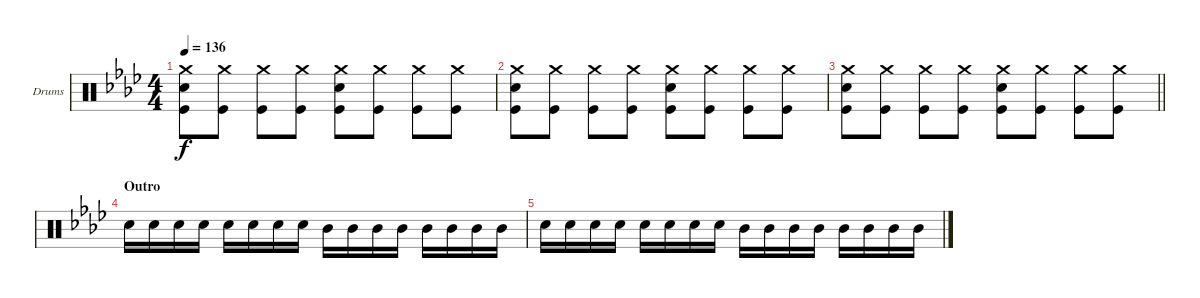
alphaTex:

\bracketExtendMode groupsimilarinstruments
\firstSystemTrackNameOrientation horizontal
\otherSystemsTrackNameOrientation horizontal
\track ("Fabrizio" "Drums") {instrument percussion}
\staff {score}
\articulation defaults
\ts (4 4)
\tempo 136
\clef neutral
\ks ab
("Crash medium (hit)" "Snare (hit) 2" "Kick (hit)").8{dy f} ("Crash medium (hit)" "Kick (hit)").8 ("Crash medium (hit)" "Kick (hit)").8 ("Crash medium (hit)" "Kick (hit)").8 ("Crash medium (hit)" "Snare (hit) 2" "Kick (hit)").8 ("Crash medium (hit)" "Kick (hit)").8 ("Crash medium (hit)" "Kick (hit)").8 ("Crash medium (hit)" "Kick (hit)").8 |
("Crash medium (hit)" "Snare (hit) 2" "Kick (hit)").8 ("Crash medium (hit)" "Kick (hit)").8 ("Crash medium (hit)" "Kick (hit)").8 ("Crash medium (hit)" "Kick (hit)").8 ("Crash medium (hit)" "Snare (hit) 2" "Kick (hit)").8 ("Crash medium (hit)" "Kick (hit)").8 ("Crash medium (hit)" "Kick (hit)").8 ("Crash medium (hit)" "Kick (hit)").8 |
\barLineRight lightlight
("Crash medium (hit)" "Snare (hit) 2" "Kick (hit)").8 ("Crash medium (hit)" "Kick (hit)").8 ("Crash medium (hit)" "Kick (hit)").8 ("Crash medium (hit)" "Kick (hit)").8 ("Crash medium (hit)" "Snare (hit) 2" "Kick (hit)").8 ("Crash medium (hit)" "Kick (hit)").8 ("Crash medium (hit)" "Kick (hit)").8 ("Crash medium (hit)" "Kick (hit)").8 |
\section ("" "Outro")
"Snare (hit) 2".16 "Snare (hit) 2".16 "Snare (hit) 2".16 "Snare (hit) 2".16 "Snare (hit) 2".16 "Snare (hit) 2".16 "Snare (hit) 2".16 "Snare (hit) 2".16 "Mid Tom (hit)".16 "Mid Tom (hit)".16 "Mid Tom (hit)".16 "Mid Tom (hit)".16 "Mid Tom (hit)".16 "Mid Tom (hit)".16 "Mid Tom (hit)".16 "Mid Tom (hit)".16 |
"Snare (hit) 2".16 "Snare (hit) 2".16 "Snare (hit) 2".16 "Snare (hit) 2".16 "Snare (hit) 2".16 "Snare (hit) 2".16 "Snare (hit) 2".16 "Snare (hit) 2".16 "Mid Tom (hit)".16 "Mid Tom (hit)".16 "Mid Tom (hit)".16 "Mid Tom (hit)".16 "Mid Tom (hit)".16 "Mid Tom (hit)".16 "Mid Tom (hit)".16 "Mid Tom (hit)".16
